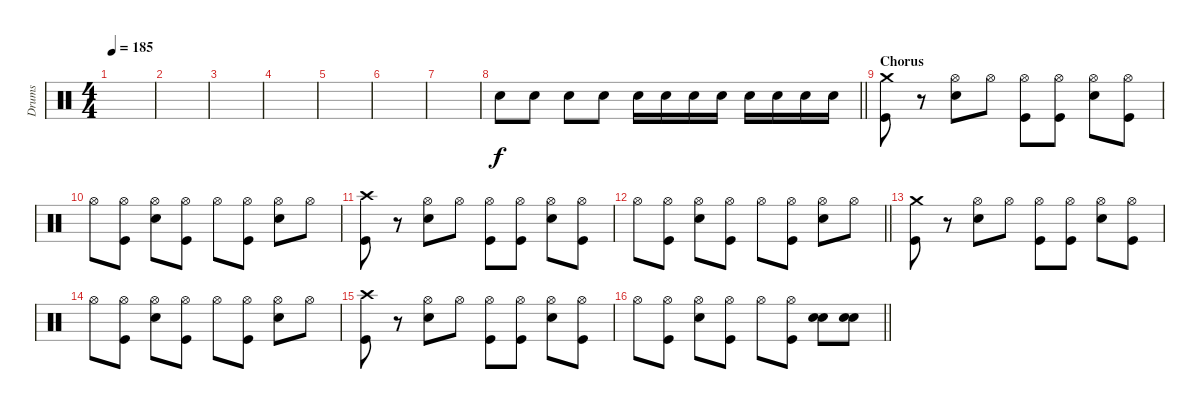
\track ("Drums" "Drums") {instrument percussion}
\staff {score}
\articulation defaults
\ts (4 4)
\tempo 185
\clef neutral
\ks c
|
|
|
|
|
|
|
\barLineRight lightlight "Electric Snare (hit)".8 "Electric Snare (hit)".8 "Electric Snare (hit)".8 "Electric Snare (hit)".8 "Electric Snare (hit)".16 "Electric Snare (hit)".16 "Electric Snare (hit)".16 "Electric Snare (hit)".16 "Electric Snare (hit)".16 "Electric Snare (hit)".16 "Electric Snare (hit)".16 "Electric Snare (hit)".16
|
\section ("" "Chorus")
("Crash medium (hit)" "Kick (hit)").8 r.8 ("Hi-Hat (open)" "Electric Snare (hit)").8 "Hi-Hat (open)".8 ("Hi-Hat (open)" "Kick (hit)").8 ("Hi-Hat (open)" "Kick (hit)").8 ("Hi-Hat (open)" "Electric Snare (hit)").8 ("Hi-Hat (open)" "Kick (hit)").8 |
"Hi-Hat (open)".8 ("Hi-Hat (open)" "Kick (hit)").8 ("Hi-Hat (open)" "Electric Snare (hit)").8 ("Hi-Hat (open)" "Kick (hit)").8 "Hi-Hat (open)".8 ("Hi-Hat (open)" "Kick (hit)").8 ("Hi-Hat (open)" "Electric Snare (hit)").8 "Hi-Hat (open)".8 |
("Crash high (hit)" "Kick (hit)").8 r.8 ("Hi-Hat (open)" "Electric Snare (hit)").8 "Hi-Hat (open)".8 ("Hi-Hat (open)" "Kick (hit)").8 ("Hi-Hat (open)" "Kick (hit)").8 ("Hi-Hat (open)" "Electric Snare (hit)").8 ("Hi-Hat (open)" "Kick (hit)").8 |
\barLineRight lightlight "Hi-Hat (open)".8
("Hi-Hat (open)" "Kick (hit)").8 ("Hi-Hat (open)" "Electric Snare (hit)").8 ("Hi-Hat (open)" "Kick (hit)").8 "Hi-Hat (open)".8 ("Hi-Hat (open)" "Kick (hit)").8 ("Hi-Hat (open)" "Electric Snare (hit)").8 "Hi-Hat (open)".8 |
("Crash medium (hit)" "Kick (hit)").8 r.8 ("Hi-Hat (open)" "Electric Snare (hit)").8 "Hi-Hat (open)".8 ("Hi-Hat (open)" "Kick (hit)").8 ("Hi-Hat (open)" "Kick (hit)").8 ("Hi-Hat (open)" "Electric Snare (hit)").8 ("Hi-Hat (open)" "Kick (hit)").8 |
"Hi-Hat (open)".8 ("Hi-Hat (open)" "Kick (hit)").8 ("Hi-Hat (open)" "Electric Snare (hit)").8 ("Hi-Hat (open)" "Kick (hit)").8 "Hi-Hat (open)".8 ("Hi-Hat (open)" "Kick (hit)").8 ("Hi-Hat (open)" "Electric Snare (hit)").8 "Hi-Hat (open)".8 |
("Crash high (hit)" "Kick (hit)").8 r.8 ("Hi-Hat (open)" "Electric Snare (hit)").8 "Hi-Hat (open)".8 ("Hi-Hat (open)" "Kick (hit)").8 ("Hi-Hat (open)" "Kick (hit)").8 ("Hi-Hat (open)" "Electric Snare (hit)").8 ("Hi-Hat (open)" "Kick (hit)").8 |
\barLineRight lightlight "Hi-Hat (open)".8
("Hi-Hat (open)" "Kick (hit)").8 ("Hi-Hat (open)" "Electric Snare (hit)").8 ("Hi-Hat (open)" "Kick (hit)").8 "Hi-Hat (open)".8 ("Hi-Hat (open)" "Kick (hit)").8 ("Electric Snare (hit)" "Snare (hit) 2").8 ("Electric Snare (hit)" "Snare (hit) 2").8
